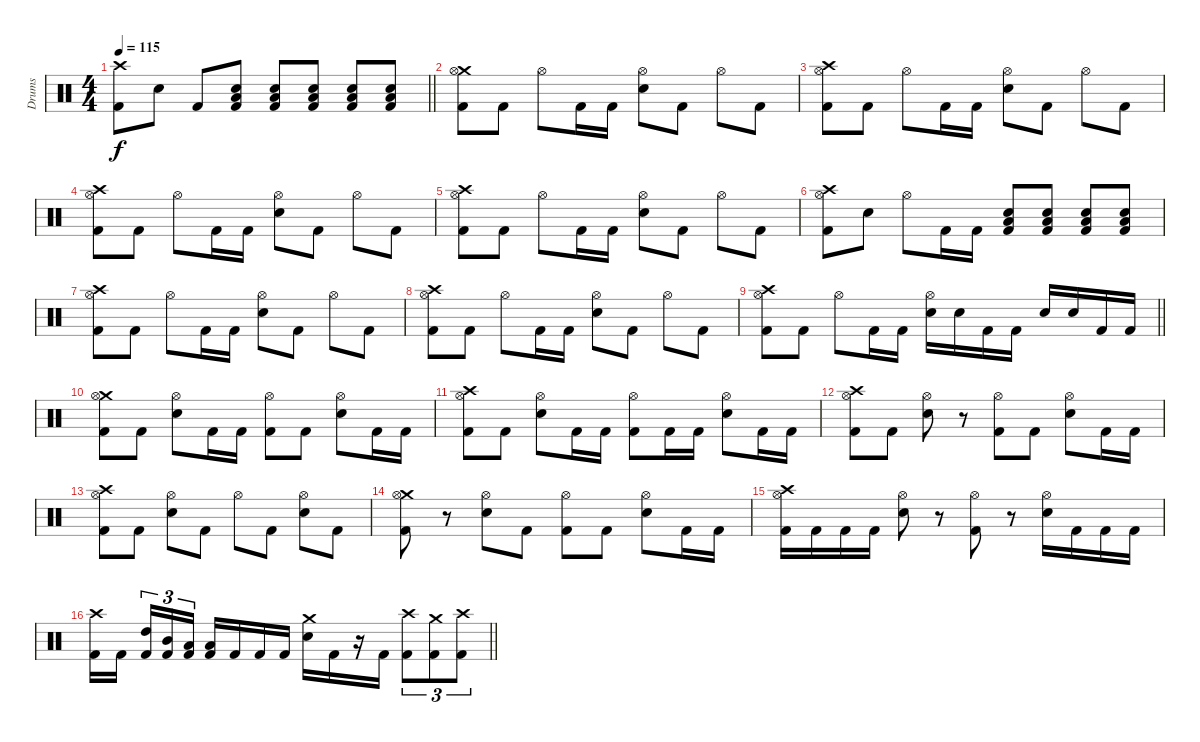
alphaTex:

\track ("Drums" "Drums") {instrument percussion}
\staff {score}
\articulation defaults
\ts (4 4)
\tempo 115
\clef neutral
\barLineRight lightlight
\ks c
("Crash high (hit)" "Kick (hit) 2").8{dy f} "Electric Snare (hit)".8 "Kick (hit) 2".8 ("Low Tom (hit)" "Electric Snare (hit)" "Kick (hit) 2").8 ("Low Tom (hit)" "Electric Snare (hit)" "Kick (hit) 2").8 ("Low Tom (hit)" "Electric Snare (hit)" "Kick (hit) 2").8 ("Low Tom (hit)" "Electric Snare (hit)" "Kick (hit) 2").8 ("Low Tom (hit)" "Electric Snare (hit)" "Kick (hit) 2").8 |
\section ("" "")
("Crash medium (hit)" "Hi-Hat (open)" "Kick (hit) 2").8 "Kick (hit) 2".8 "Hi-Hat (open)".8 "Kick (hit) 2".16 "Kick (hit) 2".16 ("Hi-Hat (open)" "Electric Snare (hit)").8 "Kick (hit) 2".8 "Hi-Hat (open)".8 "Kick (hit) 2".8 |
("Crash high (hit)" "Hi-Hat (open)" "Kick (hit) 2").8 "Kick (hit) 2".8 "Hi-Hat (open)".8 "Kick (hit) 2".16 "Kick (hit) 2".16 ("Hi-Hat (open)" "Electric Snare (hit)").8 "Kick (hit) 2".8 "Hi-Hat (open)".8 "Kick (hit) 2".8 |
("Crash high (hit)" "Hi-Hat (open)" "Kick (hit) 2").8 "Kick (hit) 2".8 "Hi-Hat (open)".8 "Kick (hit) 2".16 "Kick (hit) 2".16 ("Hi-Hat (open)" "Electric Snare (hit)").8 "Kick (hit) 2".8 "Hi-Hat (open)".8 "Kick (hit) 2".8 |
("Crash high (hit)" "Hi-Hat (open)" "Kick (hit) 2").8 "Kick (hit) 2".8 "Hi-Hat (open)".8 "Kick (hit) 2".16 "Kick (hit) 2".16 ("Hi-Hat (open)" "Electric Snare (hit)").8 "Kick (hit) 2".8 "Hi-Hat (open)".8 "Kick (hit) 2".8 |
("Crash high (hit)" "Hi-Hat (open)" "Kick (hit) 2").8 "Electric Snare (hit)".8 "Hi-Hat (open)".8 "Kick (hit) 2".16 "Kick (hit) 2".16 ("Low Tom (hit)" "Electric Snare (hit)" "Kick (hit) 2").8 ("Low Tom (hit)" "Electric Snare (hit)" "Kick (hit) 2").8 ("Low Tom (hit)" "Electric Snare (hit)" "Kick (hit) 2").8 ("Low Tom (hit)" "Electric Snare (hit)" "Kick (hit) 2").8 |
("Crash high (hit)" "Hi-Hat (open)" "Kick (hit) 2").8 "Kick (hit) 2".8 "Hi-Hat (open)".8 "Kick (hit) 2".16 "Kick (hit) 2".16 ("Hi-Hat (open)" "Electric Snare (hit)").8 "Kick (hit) 2".8 "Hi-Hat (open)".8 "Kick (hit) 2".8 |
("Crash high (hit)" "Hi-Hat (open)" "Kick (hit) 2").8 "Kick (hit) 2".8 "Hi-Hat (open)".8 "Kick (hit) 2".16 "Kick (hit) 2".16 ("Hi-Hat (open)" "Electric Snare (hit)").8 "Kick (hit) 2".8 "Hi-Hat (open)".8 "Kick (hit) 2".8 |
\barLineRight lightlight
("Crash high (hit)" "Hi-Hat (open)" "Kick (hit) 2").8 "Kick (hit) 2".8 "Hi-Hat (open)".8 "Kick (hit) 2".16 "Kick (hit) 2".16 ("Hi-Hat (open)" "Electric Snare (hit)").16 "Electric Snare (hit)".16 "Kick (hit) 2".16 "Kick (hit) 2".16 "Electric Snare (hit)".16 "Electric Snare (hit)".16 "Kick (hit) 2".16 "Kick (hit) 2".16 |
\section ("" "")
("Crash medium (hit)" "Hi-Hat (open)" "Kick (hit) 2").8{volume 16} "Kick (hit) 2".8 ("Hi-Hat (open)" "Electric Snare (hit)").8 "Kick (hit) 2".16 "Kick (hit) 2".16 ("Hi-Hat (open)" "Kick (hit) 2").8 "Kick (hit) 2".8 ("Hi-Hat (open)" "Electric Snare (hit)").8 "Kick (hit) 2".16 "Kick (hit) 2".16 |
("Crash high (hit)" "Hi-Hat (open)" "Kick (hit) 2").8 "Kick (hit) 2".8 ("Hi-Hat (open)" "Electric Snare (hit)").8 "Kick (hit) 2".16 "Kick (hit) 2".16 ("Hi-Hat (open)" "Kick (hit) 2").8 "Kick (hit) 2".16 "Kick (hit) 2".16 ("Hi-Hat (open)" "Electric Snare (hit)").8 "Kick (hit) 2".16 "Kick (hit) 2".16 |
("Crash high (hit)" "Hi-Hat (open)" "Kick (hit) 2").8 "Kick (hit) 2".8 ("Hi-Hat (open)" "Electric Snare (hit)").8 r.8 ("Hi-Hat (open)" "Kick (hit) 2").8 "Kick (hit) 2".8 ("Hi-Hat (open)" "Electric Snare (hit)").8 "Kick (hit) 2".16 "Kick (hit) 2".16 |
("Crash high (hit)" "Hi-Hat (open)" "Kick (hit) 2").8 "Kick (hit) 2".8 ("Hi-Hat (open)" "Electric Snare (hit)").8 "Kick (hit) 2".8 "Hi-Hat (open)".8 "Kick (hit) 2".8 ("Hi-Hat (open)" "Electric Snare (hit)").8 "Kick (hit) 2".8 |
("Crash medium (hit)" "Hi-Hat (open)" "Kick (hit) 2").8 r.8 ("Hi-Hat (open)" "Electric Snare (hit)").8 "Kick (hit) 2".8 ("Hi-Hat (open)" "Kick (hit) 2").8 "Kick (hit) 2".8 ("Hi-Hat (open)" "Electric Snare (hit)").8 "Kick (hit) 2".16 "Kick (hit) 2".16 |
("Crash high (hit)" "Hi-Hat (open)" "Kick (hit) 2").16 "Kick (hit) 2".16 "Kick (hit) 2".16 "Kick (hit) 2".16 ("Hi-Hat (open)" "Electric Snare (hit)").8 r.8 ("Hi-Hat (open)" "Kick (hit) 2").8 r.8 ("Hi-Hat (open)" "Electric Snare (hit)").16 "Kick (hit) 2".16 "Kick (hit) 2".16 "Kick (hit) 2".16 |
\barLineRight lightlight
("Crash high (hit)" "Kick (hit) 2").16 "Kick (hit) 2".16{beam splitsecondary} ("High Tom (hit)" "Kick (hit) 2").16{tu (3 2)} ("Mid Tom (hit)" "Kick (hit) 2").16{tu (3 2)} ("Low Tom (hit)" "Kick (hit) 2").16{tu (3 2)} ("Low Floor Tom (hit)" "Kick (hit) 2").16 "Kick (hit) 2".16 "Kick (hit) 2".16 "Kick (hit) 2".16 ("Crash medium (hit)" "Electric Snare (hit)").16 "Kick (hit) 2".16 r.16 "Kick (hit) 2".16 ("Crash high (hit)" "Kick (hit) 2").8{tu (3 2)} ("Crash medium (hit)" "Kick (hit) 2").8{tu (3 2)} ("Crash high (hit)" "Kick (hit) 2").8{tu (3 2)}
